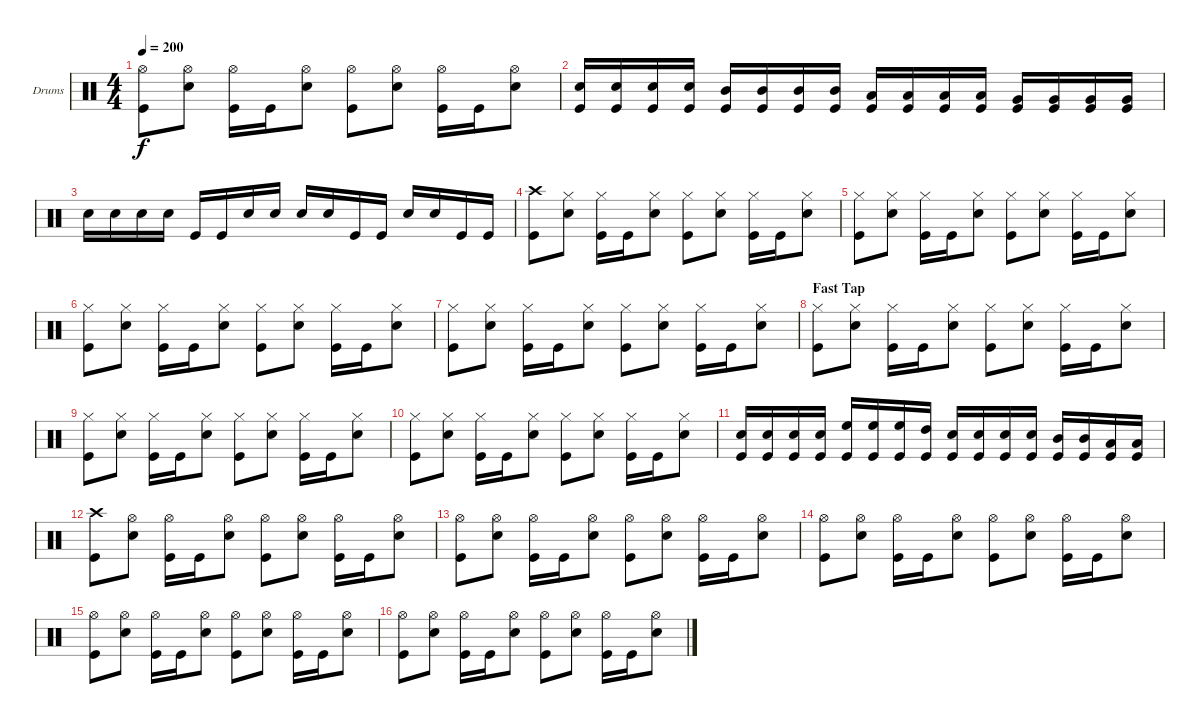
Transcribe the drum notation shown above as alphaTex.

\bracketExtendMode groupsimilarinstruments
\firstSystemTrackNameOrientation horizontal
\otherSystemsTrackNameOrientation horizontal
\track ("Drumkit" "Drums") {instrument percussion}
\staff {score}
\articulation defaults
\ts (4 4)
\tempo 200
\clef neutral
\ks aminor
("Kick (hit)" "Hi-Hat (open)").8{dy f} ("Snare (hit) 2" "Hi-Hat (open)").8 ("Kick (hit)" "Hi-Hat (open)").16 "Kick (hit)".16 ("Snare (hit) 2" "Hi-Hat (open)").8 ("Kick (hit)" "Hi-Hat (open)").8 ("Snare (hit) 2" "Hi-Hat (open)").8 ("Kick (hit)" "Hi-Hat (open)").16 "Kick (hit)".16 ("Snare (hit) 2" "Hi-Hat (open)").8 |
("Kick (hit)" "Snare (hit) 2").16 ("Kick (hit)" "Snare (hit) 2").16 ("Kick (hit)" "Snare (hit) 2").16 ("Kick (hit)" "Snare (hit) 2").16 ("Kick (hit)" "Mid Tom (hit)").16 ("Kick (hit)" "Mid Tom (hit)").16 ("Kick (hit)" "Mid Tom (hit)").16 ("Kick (hit)" "Mid Tom (hit)").16 ("Kick (hit)" "Low Tom (hit)").16 ("Kick (hit)" "Low Tom (hit)").16 ("Kick (hit)" "Low Tom (hit)").16 ("Kick (hit)" "Low Tom (hit)").16 ("Kick (hit)" "Very Low Tom (hit)").16 ("Kick (hit)" "Very Low Tom (hit)").16 ("Kick (hit)" "Very Low Tom (hit)").16 ("Kick (hit)" "Very Low Tom (hit)").16 |
"Snare (hit) 2".16 "Snare (hit) 2".16 "Snare (hit) 2".16 "Snare (hit) 2".16 "Kick (hit)".16 "Kick (hit)".16 "Snare (hit) 2".16 "Snare (hit) 2".16 "Snare (hit) 2".16 "Snare (hit) 2".16 "Kick (hit)".16 "Kick (hit)".16 "Snare (hit) 2".16 "Snare (hit) 2".16 "Kick (hit)".16 "Kick (hit)".16 |
("Kick (hit)" "Crash high (hit)").8 ("Snare (hit) 2" "Hi-Hat (closed)").8 ("Kick (hit)" "Hi-Hat (closed)").16 "Kick (hit)".16 ("Snare (hit) 2" "Hi-Hat (closed)").8 ("Kick (hit)" "Hi-Hat (closed)").8 ("Snare (hit) 2" "Hi-Hat (closed)").8 ("Kick (hit)" "Hi-Hat (closed)").16 "Kick (hit)".16 ("Snare (hit) 2" "Hi-Hat (closed)").8 |
("Kick (hit)" "Hi-Hat (closed)").8 ("Snare (hit) 2" "Hi-Hat (closed)").8 ("Kick (hit)" "Hi-Hat (closed)").16 "Kick (hit)".16 ("Snare (hit) 2" "Hi-Hat (closed)").8 ("Kick (hit)" "Hi-Hat (closed)").8 ("Snare (hit) 2" "Hi-Hat (closed)").8 ("Kick (hit)" "Hi-Hat (closed)").16 "Kick (hit)".16 ("Snare (hit) 2" "Hi-Hat (closed)").8 |
("Kick (hit)" "Hi-Hat (closed)").8 ("Snare (hit) 2" "Hi-Hat (closed)").8 ("Kick (hit)" "Hi-Hat (closed)").16 "Kick (hit)".16 ("Snare (hit) 2" "Hi-Hat (closed)").8 ("Kick (hit)" "Hi-Hat (closed)").8 ("Snare (hit) 2" "Hi-Hat (closed)").8 ("Kick (hit)" "Hi-Hat (closed)").16 "Kick (hit)".16 ("Snare (hit) 2" "Hi-Hat (closed)").8 |
("Kick (hit)" "Hi-Hat (closed)").8 ("Snare (hit) 2" "Hi-Hat (closed)").8 ("Kick (hit)" "Hi-Hat (closed)").16 "Kick (hit)".16 ("Snare (hit) 2" "Hi-Hat (closed)").8 ("Kick (hit)" "Hi-Hat (closed)").8 ("Snare (hit) 2" "Hi-Hat (closed)").8 ("Kick (hit)" "Hi-Hat (closed)").16 "Kick (hit)".16 ("Snare (hit) 2" "Hi-Hat (closed)").8 |
\section ("" "Fast Tap")
("Kick (hit)" "Hi-Hat (closed)").8 ("Snare (hit) 2" "Hi-Hat (closed)").8 ("Kick (hit)" "Hi-Hat (closed)").16 "Kick (hit)".16 ("Snare (hit) 2" "Hi-Hat (closed)").8 ("Kick (hit)" "Hi-Hat (closed)").8 ("Snare (hit) 2" "Hi-Hat (closed)").8 ("Kick (hit)" "Hi-Hat (closed)").16 "Kick (hit)".16 ("Snare (hit) 2" "Hi-Hat (closed)").8 |
("Kick (hit)" "Hi-Hat (closed)").8 ("Snare (hit) 2" "Hi-Hat (closed)").8 ("Kick (hit)" "Hi-Hat (closed)").16 "Kick (hit)".16 ("Snare (hit) 2" "Hi-Hat (closed)").8 ("Kick (hit)" "Hi-Hat (closed)").8 ("Snare (hit) 2" "Hi-Hat (closed)").8 ("Kick (hit)" "Hi-Hat (closed)").16 "Kick (hit)".16 ("Snare (hit) 2" "Hi-Hat (closed)").8 |
("Kick (hit)" "Hi-Hat (closed)").8 ("Snare (hit) 2" "Hi-Hat (closed)").8 ("Kick (hit)" "Hi-Hat (closed)").16 "Kick (hit)".16 ("Snare (hit) 2" "Hi-Hat (closed)").8 ("Kick (hit)" "Hi-Hat (closed)").8 ("Snare (hit) 2" "Hi-Hat (closed)").8 ("Kick (hit)" "Hi-Hat (closed)").16 "Kick (hit)".16 ("Snare (hit) 2" "Hi-Hat (closed)").8 |
("Kick (hit)" "Snare (hit) 2").16 ("Kick (hit)" "Snare (hit) 2").16 ("Kick (hit)" "Snare (hit) 2").16 ("Kick (hit)" "Snare (hit) 2").16 ("Kick (hit)" "High Floor Tom (hit)").16 ("Kick (hit)" "High Floor Tom (hit)").16 ("Kick (hit)" "High Floor Tom (hit)").16 ("Kick (hit)" "High Tom (hit)").16 ("Kick (hit)" "Snare (hit) 2").16 ("Kick (hit)" "Snare (hit) 2").16 ("Kick (hit)" "Snare (hit) 2").16 ("Kick (hit)" "Snare (hit) 2").16 ("Kick (hit)" "Mid Tom (hit)").16 ("Kick (hit)" "Mid Tom (hit)").16 ("Kick (hit)" "Low Tom (hit)").16 ("Kick (hit)" "Low Tom (hit)").16 |
\section ("" "")
("Kick (hit)" "Crash high (hit)").8 ("Snare (hit) 2" "Hi-Hat (open)").8 ("Kick (hit)" "Hi-Hat (open)").16 "Kick (hit)".16 ("Snare (hit) 2" "Hi-Hat (open)").8 ("Kick (hit)" "Hi-Hat (open)").8 ("Snare (hit) 2" "Hi-Hat (open)").8 ("Kick (hit)" "Hi-Hat (open)").16 "Kick (hit)".16 ("Snare (hit) 2" "Hi-Hat (open)").8 |
("Kick (hit)" "Hi-Hat (open)").8 ("Snare (hit) 2" "Hi-Hat (open)").8 ("Kick (hit)" "Hi-Hat (open)").16 "Kick (hit)".16 ("Snare (hit) 2" "Hi-Hat (open)").8 ("Kick (hit)" "Hi-Hat (open)").8 ("Snare (hit) 2" "Hi-Hat (open)").8 ("Kick (hit)" "Hi-Hat (open)").16 "Kick (hit)".16 ("Snare (hit) 2" "Hi-Hat (open)").8 |
("Kick (hit)" "Hi-Hat (open)").8 ("Snare (hit) 2" "Hi-Hat (open)").8 ("Kick (hit)" "Hi-Hat (open)").16 "Kick (hit)".16 ("Snare (hit) 2" "Hi-Hat (open)").8 ("Kick (hit)" "Hi-Hat (open)").8 ("Snare (hit) 2" "Hi-Hat (open)").8 ("Kick (hit)" "Hi-Hat (open)").16 "Kick (hit)".16 ("Snare (hit) 2" "Hi-Hat (open)").8 |
("Kick (hit)" "Hi-Hat (open)").8 ("Snare (hit) 2" "Hi-Hat (open)").8 ("Kick (hit)" "Hi-Hat (open)").16 "Kick (hit)".16 ("Snare (hit) 2" "Hi-Hat (open)").8 ("Kick (hit)" "Hi-Hat (open)").8 ("Snare (hit) 2" "Hi-Hat (open)").8 ("Kick (hit)" "Hi-Hat (open)").16 "Kick (hit)".16 ("Snare (hit) 2" "Hi-Hat (open)").8 |
("Kick (hit)" "Hi-Hat (open)").8 ("Snare (hit) 2" "Hi-Hat (open)").8 ("Kick (hit)" "Hi-Hat (open)").16 "Kick (hit)".16 ("Snare (hit) 2" "Hi-Hat (open)").8 ("Kick (hit)" "Hi-Hat (open)").8 ("Snare (hit) 2" "Hi-Hat (open)").8 ("Kick (hit)" "Hi-Hat (open)").16 "Kick (hit)".16 ("Snare (hit) 2" "Hi-Hat (open)").8
